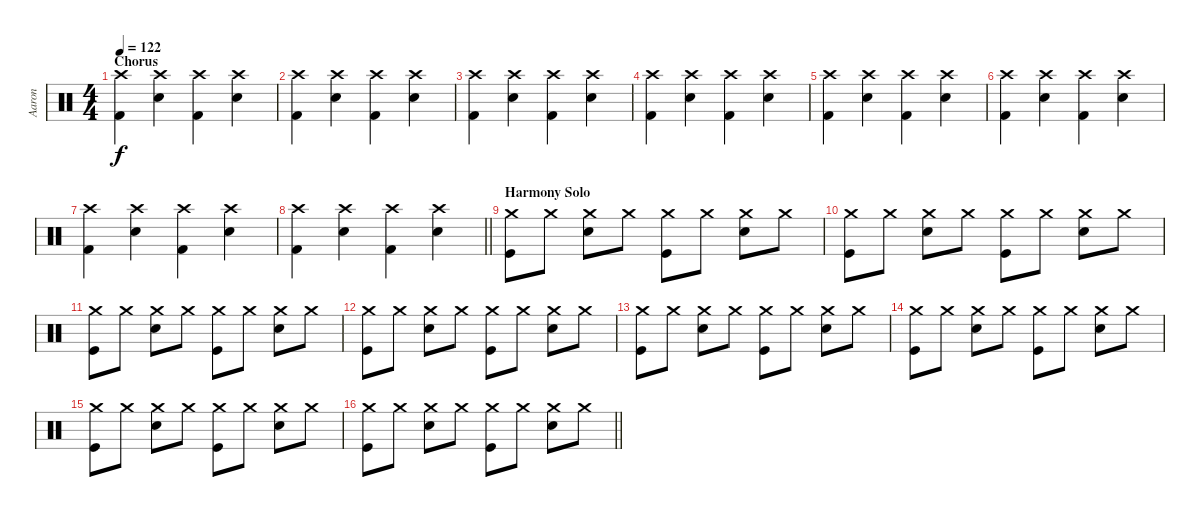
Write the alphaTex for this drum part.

\track ("Aaron" "Aaron") {instrument percussion}
\staff {score}
\articulation defaults
\ts (4 4)
\section ("" "Chorus")
\tempo 122
\clef neutral
\ks c
("Crash high (hit)" "Kick (hit) 2").4{dy f} ("Crash high (hit)" "Snare (hit) 2").4 ("Crash high (hit)" "Kick (hit) 2").4 ("Crash high (hit)" "Snare (hit) 2").4 |
("Crash high (hit)" "Kick (hit) 2").4 ("Crash high (hit)" "Snare (hit) 2").4 ("Crash high (hit)" "Kick (hit) 2").4 ("Crash high (hit)" "Snare (hit) 2").4 |
("Crash high (hit)" "Kick (hit) 2").4 ("Crash high (hit)" "Snare (hit) 2").4 ("Crash high (hit)" "Kick (hit) 2").4 ("Crash high (hit)" "Snare (hit) 2").4 |
("Crash high (hit)" "Kick (hit) 2").4 ("Crash high (hit)" "Snare (hit) 2").4 ("Crash high (hit)" "Kick (hit) 2").4 ("Crash high (hit)" "Snare (hit) 2").4 |
("Crash high (hit)" "Kick (hit) 2").4 ("Crash high (hit)" "Snare (hit) 2").4 ("Crash high (hit)" "Kick (hit) 2").4 ("Crash high (hit)" "Snare (hit) 2").4 |
("Crash high (hit)" "Kick (hit) 2").4 ("Crash high (hit)" "Snare (hit) 2").4 ("Crash high (hit)" "Kick (hit) 2").4 ("Crash high (hit)" "Snare (hit) 2").4 |
("Crash high (hit)" "Kick (hit) 2").4 ("Crash high (hit)" "Snare (hit) 2").4 ("Crash high (hit)" "Kick (hit) 2").4 ("Crash high (hit)" "Snare (hit) 2").4 |
\barLineRight lightlight
("Crash high (hit)" "Kick (hit) 2").4 ("Crash high (hit)" "Snare (hit) 2").4 ("Crash high (hit)" "Kick (hit) 2").4 ("Crash high (hit)" "Snare (hit) 2").4 |
\section ("" "Harmony Solo")
("Crash medium (hit)" "Kick (hit)").8 "Crash medium (hit)".8 ("Crash medium (hit)" "Snare (hit) 2").8 "Crash medium (hit)".8 ("Crash medium (hit)" "Kick (hit)").8 "Crash medium (hit)".8 ("Crash medium (hit)" "Snare (hit) 2").8 "Crash medium (hit)".8 |
("Crash medium (hit)" "Kick (hit)").8 "Crash medium (hit)".8 ("Crash medium (hit)" "Snare (hit) 2").8 "Crash medium (hit)".8 ("Crash medium (hit)" "Kick (hit)").8 "Crash medium (hit)".8 ("Crash medium (hit)" "Snare (hit) 2").8 "Crash medium (hit)".8 |
("Crash medium (hit)" "Kick (hit)").8 "Crash medium (hit)".8 ("Crash medium (hit)" "Snare (hit) 2").8 "Crash medium (hit)".8 ("Crash medium (hit)" "Kick (hit)").8 "Crash medium (hit)".8 ("Crash medium (hit)" "Snare (hit) 2").8 "Crash medium (hit)".8 |
("Crash medium (hit)" "Kick (hit)").8 "Crash medium (hit)".8 ("Crash medium (hit)" "Snare (hit) 2").8 "Crash medium (hit)".8 ("Crash medium (hit)" "Kick (hit)").8 "Crash medium (hit)".8 ("Crash medium (hit)" "Snare (hit) 2").8 "Crash medium (hit)".8 |
("Crash medium (hit)" "Kick (hit)").8 "Crash medium (hit)".8 ("Crash medium (hit)" "Snare (hit) 2").8 "Crash medium (hit)".8 ("Crash medium (hit)" "Kick (hit)").8 "Crash medium (hit)".8 ("Crash medium (hit)" "Snare (hit) 2").8 "Crash medium (hit)".8 |
("Crash medium (hit)" "Kick (hit)").8 "Crash medium (hit)".8 ("Crash medium (hit)" "Snare (hit) 2").8 "Crash medium (hit)".8 ("Crash medium (hit)" "Kick (hit)").8 "Crash medium (hit)".8 ("Crash medium (hit)" "Snare (hit) 2").8 "Crash medium (hit)".8 |
("Crash medium (hit)" "Kick (hit)").8 "Crash medium (hit)".8 ("Crash medium (hit)" "Snare (hit) 2").8 "Crash medium (hit)".8 ("Crash medium (hit)" "Kick (hit)").8 "Crash medium (hit)".8 ("Crash medium (hit)" "Snare (hit) 2").8 "Crash medium (hit)".8 |
\barLineRight lightlight
("Crash medium (hit)" "Kick (hit)").8 "Crash medium (hit)".8 ("Crash medium (hit)" "Snare (hit) 2").8 "Crash medium (hit)".8 ("Crash medium (hit)" "Kick (hit)").8 "Crash medium (hit)".8 ("Crash medium (hit)" "Snare (hit) 2").8 "Crash medium (hit)".8
